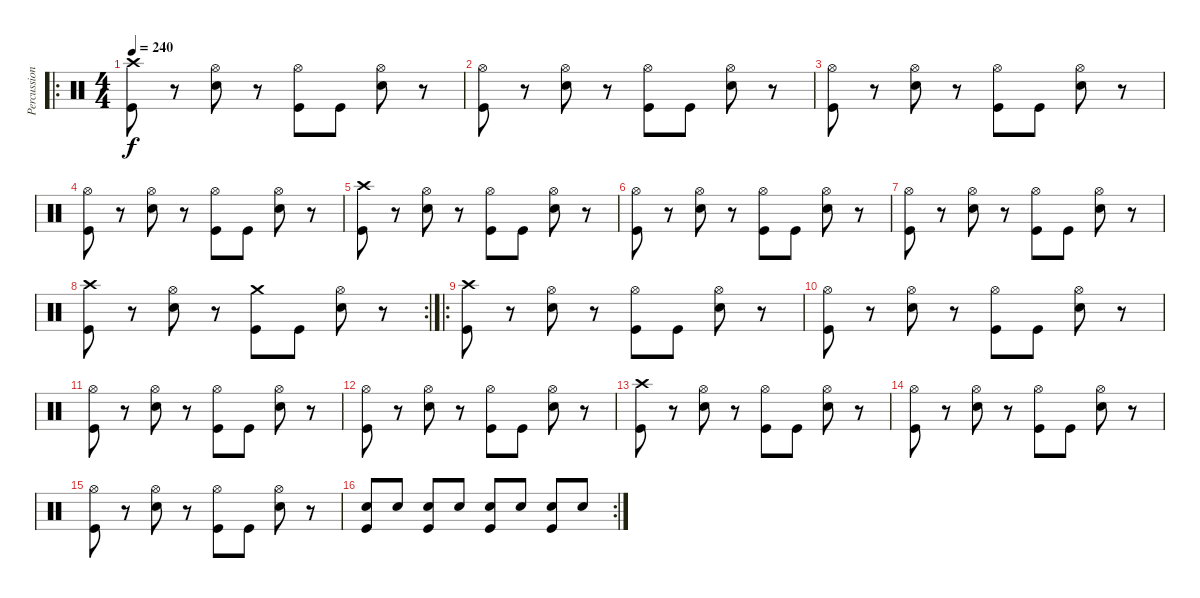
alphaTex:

\track ("Percussion" "Percussion") {instrument percussion}
\staff {score}
\articulation defaults
\ro
\ts (4 4)
\tempo 240
\clef neutral
\ks c
("Crash high (hit)" "Kick (hit)").8{dy f} r.8 ("Hi-Hat (open)" "Snare (hit) 2").8 r.8 ("Hi-Hat (open)" "Kick (hit)").8 "Kick (hit)".8 ("Hi-Hat (open)" "Snare (hit) 2").8 r.8 |
("Hi-Hat (open)" "Kick (hit)").8 r.8 ("Hi-Hat (open)" "Snare (hit) 2").8 r.8 ("Hi-Hat (open)" "Kick (hit)").8 "Kick (hit)".8 ("Hi-Hat (open)" "Snare (hit) 2").8 r.8 |
("Hi-Hat (open)" "Kick (hit)").8 r.8 ("Hi-Hat (open)" "Snare (hit) 2").8 r.8 ("Hi-Hat (open)" "Kick (hit)").8 "Kick (hit)".8 ("Hi-Hat (open)" "Snare (hit) 2").8 r.8 |
("Hi-Hat (open)" "Kick (hit)").8 r.8 ("Hi-Hat (open)" "Snare (hit) 2").8 r.8 ("Hi-Hat (open)" "Kick (hit)").8 "Kick (hit)".8 ("Hi-Hat (open)" "Snare (hit) 2").8 r.8 |
("Crash high (hit)" "Kick (hit)").8 r.8 ("Hi-Hat (open)" "Snare (hit) 2").8 r.8 ("Hi-Hat (open)" "Kick (hit)").8 "Kick (hit)".8 ("Hi-Hat (open)" "Snare (hit) 2").8 r.8 |
("Hi-Hat (open)" "Kick (hit)").8 r.8 ("Hi-Hat (open)" "Snare (hit) 2").8 r.8 ("Hi-Hat (open)" "Kick (hit)").8 "Kick (hit)".8 ("Hi-Hat (open)" "Snare (hit) 2").8 r.8 |
("Hi-Hat (open)" "Kick (hit)").8 r.8 ("Hi-Hat (open)" "Snare (hit) 2").8 r.8 ("Hi-Hat (open)" "Kick (hit)").8 "Kick (hit)".8 ("Hi-Hat (open)" "Snare (hit) 2").8 r.8 |
\rc 2
("Crash high (hit)" "Kick (hit)").8 r.8 ("Hi-Hat (open)" "Snare (hit) 2").8 r.8 ("Crash medium (hit)" "Kick (hit)").8 "Kick (hit)".8 ("Hi-Hat (open)" "Snare (hit) 2").8 r.8 |
\ro
("Crash high (hit)" "Kick (hit)").8 r.8 ("Hi-Hat (open)" "Snare (hit) 2").8 r.8 ("Hi-Hat (open)" "Kick (hit)").8 "Kick (hit)".8 ("Hi-Hat (open)" "Snare (hit) 2").8 r.8 |
("Hi-Hat (open)" "Kick (hit)").8 r.8 ("Hi-Hat (open)" "Snare (hit) 2").8 r.8 ("Hi-Hat (open)" "Kick (hit)").8 "Kick (hit)".8 ("Hi-Hat (open)" "Snare (hit) 2").8 r.8 |
("Hi-Hat (open)" "Kick (hit)").8 r.8 ("Hi-Hat (open)" "Snare (hit) 2").8 r.8 ("Hi-Hat (open)" "Kick (hit)").8 "Kick (hit)".8 ("Hi-Hat (open)" "Snare (hit) 2").8 r.8 |
("Hi-Hat (open)" "Kick (hit)").8 r.8 ("Hi-Hat (open)" "Snare (hit) 2").8 r.8 ("Hi-Hat (open)" "Kick (hit)").8 "Kick (hit)".8 ("Hi-Hat (open)" "Snare (hit) 2").8 r.8 |
("Crash high (hit)" "Kick (hit)").8 r.8 ("Hi-Hat (open)" "Snare (hit) 2").8 r.8 ("Hi-Hat (open)" "Kick (hit)").8 "Kick (hit)".8 ("Hi-Hat (open)" "Snare (hit) 2").8 r.8 |
("Hi-Hat (open)" "Kick (hit)").8 r.8 ("Hi-Hat (open)" "Snare (hit) 2").8 r.8 ("Hi-Hat (open)" "Kick (hit)").8 "Kick (hit)".8 ("Hi-Hat (open)" "Snare (hit) 2").8 r.8 |
("Hi-Hat (open)" "Kick (hit)").8 r.8 ("Hi-Hat (open)" "Snare (hit) 2").8 r.8 ("Hi-Hat (open)" "Kick (hit)").8 "Kick (hit)".8 ("Hi-Hat (open)" "Snare (hit) 2").8 r.8 |
\rc 2
("Snare (hit) 2" "Kick (hit)").8 "Snare (hit) 2".8 ("Snare (hit) 2" "Kick (hit)").8 "Snare (hit) 2".8 ("Snare (hit) 2" "Kick (hit)").8 "Snare (hit) 2".8 ("Snare (hit) 2" "Kick (hit)").8 "Snare (hit) 2".8
